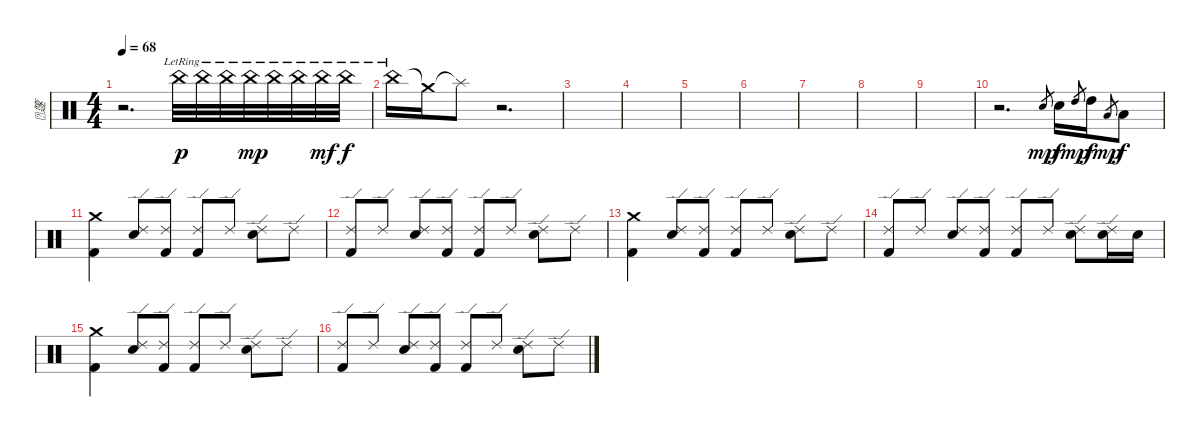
\track ("篴" "篴") {instrument percussion}
\staff {score}
\articulation defaults
\ts (4 4)
\tempo 68
\clef neutral
\ks c
r.2{d dy f} "China (hit)"{lr}.32{dy p} "China (hit)"{lr}.32 "China (hit)"{lr}.32 "China (hit)"{lr}.32{dy mp} "China (hit)"{lr}.32 "China (hit)"{lr}.32 "China (hit)"{lr}.32{dy mf} "China (hit)"{lr}.32{dy f} |
"China (hit)"{lr}.16 "Crash medium (hit)"{t}.16 "Splash (hit)"{t}.8 r.2{d} |
|
|
|
|
|
|
|
r.2{d} "Snare (hit) 2".8{gr dy mp} "Snare (hit) 2".16{dy f} "High Tom (hit)".8{gr dy mp} "High Tom (hit)".16{dy f} "Low Tom (hit)".8{gr dy mp} "Low Tom (hit)".8{dy f} |
("Crash medium (hit)" "Kick (hit) 2").4 ("Ride (edge) 2" "Snare (hit) 2").8 ("Ride (edge) 2" "Kick (hit) 2").8 ("Ride (edge) 2" "Kick (hit) 2").8 "Ride (edge) 2".8 ("Ride (edge) 2" "Snare (hit) 2").8 "Ride (edge) 2".8 |
("Ride (edge) 2" "Kick (hit) 2").8 "Ride (edge) 2".8 ("Ride (edge) 2" "Snare (hit) 2").8 ("Ride (edge) 2" "Kick (hit) 2").8 ("Ride (edge) 2" "Kick (hit) 2").8 "Ride (edge) 2".8 ("Ride (edge) 2" "Snare (hit) 2").8 "Ride (edge) 2".8 |
("Crash medium (hit)" "Kick (hit) 2").4 ("Ride (edge) 2" "Snare (hit) 2").8 ("Ride (edge) 2" "Kick (hit) 2").8 ("Ride (edge) 2" "Kick (hit) 2").8 "Ride (edge) 2".8 ("Ride (edge) 2" "Snare (hit) 2").8 "Ride (edge) 2".8 |
("Ride (edge) 2" "Kick (hit) 2").8 "Ride (edge) 2".8 ("Ride (edge) 2" "Snare (hit) 2").8 ("Ride (edge) 2" "Kick (hit) 2").8 ("Ride (edge) 2" "Kick (hit) 2").8 "Ride (edge) 2".8 ("Ride (edge) 2" "Snare (hit) 2").8 ("Ride (edge) 2" "Snare (hit) 2").16 "Snare (hit) 2".16 |
("Crash medium (hit)" "Kick (hit) 2").4 ("Ride (edge) 2" "Snare (hit) 2").8 ("Ride (edge) 2" "Kick (hit) 2").8 ("Ride (edge) 2" "Kick (hit) 2").8 "Ride (edge) 2".8 ("Ride (edge) 2" "Snare (hit) 2").8 "Ride (edge) 2".8 |
("Ride (edge) 2" "Kick (hit) 2").8 "Ride (edge) 2".8 ("Ride (edge) 2" "Snare (hit) 2").8 ("Ride (edge) 2" "Kick (hit) 2").8 ("Ride (edge) 2" "Kick (hit) 2").8 "Ride (edge) 2".8 ("Ride (edge) 2" "Snare (hit) 2").8 "Ride (edge) 2".8
